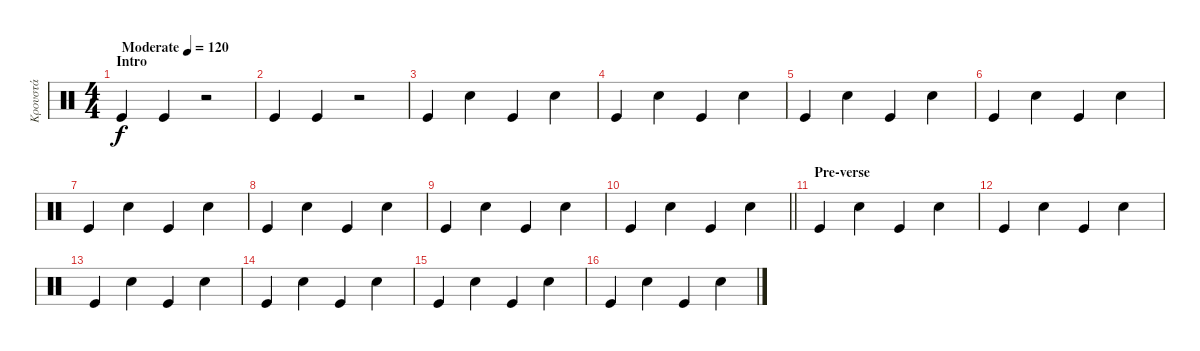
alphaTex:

\track ("Κρουστά" "Κρουστά") {instrument percussion}
\staff {score}
\articulation defaults
\ts (4 4)
\section ("" "Intro")
\tempo (120 "Moderate")
\clef neutral
\ks c "Kick (hit)".4{dy f} "Kick (hit)".4
r.2 |
"Kick (hit)".4 "Kick (hit)".4 r.2 |
"Kick (hit)".4 "Hand Clap (hit)".4 "Kick (hit)".4 "Hand Clap (hit)".4 |
"Kick (hit)".4 "Hand Clap (hit)".4 "Kick (hit)".4 "Hand Clap (hit)".4 |
"Kick (hit)".4 "Hand Clap (hit)".4 "Kick (hit)".4 "Hand Clap (hit)".4 |
"Kick (hit)".4 "Hand Clap (hit)".4 "Kick (hit)".4 "Hand Clap (hit)".4 |
"Kick (hit)".4 "Hand Clap (hit)".4 "Kick (hit)".4 "Hand Clap (hit)".4 |
"Kick (hit)".4 "Hand Clap (hit)".4 "Kick (hit)".4 "Hand Clap (hit)".4 |
"Kick (hit)".4 "Hand Clap (hit)".4 "Kick (hit)".4 "Hand Clap (hit)".4 |
\barLineRight lightlight "Kick (hit)".4 "Hand Clap (hit)".4 "Kick (hit)".4 "Hand Clap (hit)".4
|
\section ("" "Pre-verse")
"Kick (hit)".4 "Hand Clap (hit)".4 "Kick (hit)".4 "Hand Clap (hit)".4 |
"Kick (hit)".4 "Hand Clap (hit)".4 "Kick (hit)".4 "Hand Clap (hit)".4 |
"Kick (hit)".4 "Hand Clap (hit)".4 "Kick (hit)".4 "Hand Clap (hit)".4 |
"Kick (hit)".4 "Hand Clap (hit)".4 "Kick (hit)".4 "Hand Clap (hit)".4 |
"Kick (hit)".4 "Hand Clap (hit)".4 "Kick (hit)".4 "Hand Clap (hit)".4 |
"Kick (hit)".4 "Hand Clap (hit)".4 "Kick (hit)".4 "Hand Clap (hit)".4
